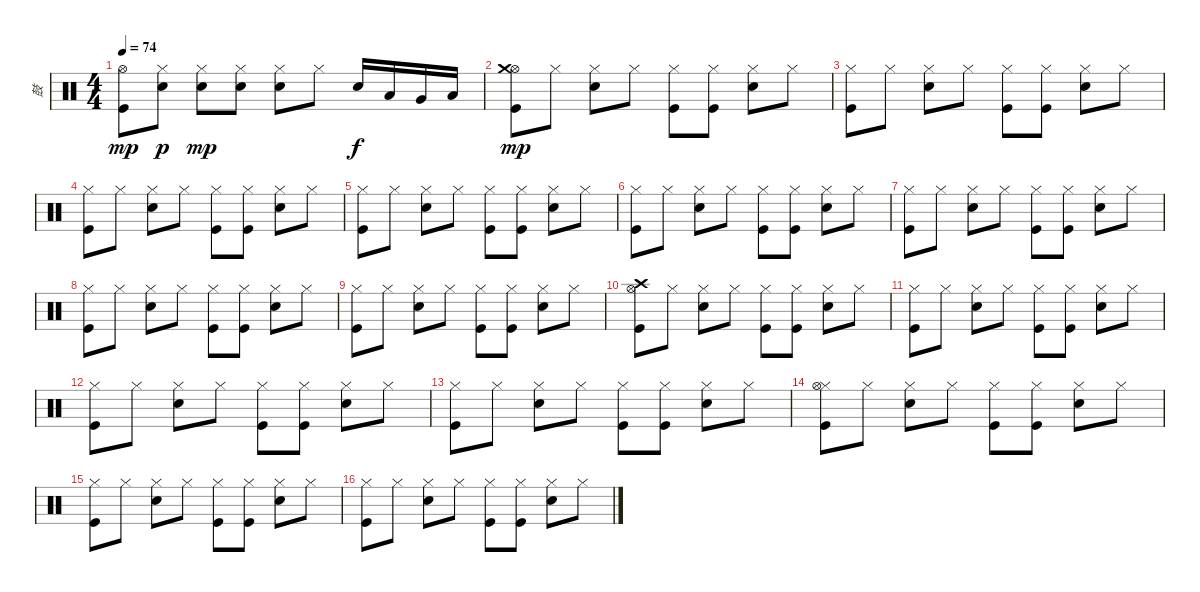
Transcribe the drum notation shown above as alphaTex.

\track ("鼓" "鼓") {instrument percussion}
\staff {score}
\articulation defaults
\ts (4 4)
\tempo 74
\clef neutral
\ks c
("Kick (hit)" "Hi-Hat (open)").8{dy mp} ("Electric Snare (hit)" "Hi-Hat (closed)").8{dy p} ("Electric Snare (hit)" "Hi-Hat (closed)").8{dy mp} ("Electric Snare (hit)" "Hi-Hat (closed)").8 ("Electric Snare (hit)" "Hi-Hat (closed)").8 "Hi-Hat (closed)".8 "Electric Snare (hit)".16{dy f} "Low Tom (hit)".16 "Very Low Tom (hit)".16 "Low Floor Tom (hit)".16 |
("Kick (hit)" "Hi-Hat (open)" "Crash medium (hit)").8{dy mp} "Hi-Hat (closed)".8 ("Electric Snare (hit)" "Hi-Hat (closed)").8 "Hi-Hat (closed)".8 ("Kick (hit)" "Hi-Hat (closed)").8 ("Kick (hit)" "Hi-Hat (closed)").8 ("Electric Snare (hit)" "Hi-Hat (closed)").8 "Hi-Hat (closed)".8 |
("Kick (hit)" "Hi-Hat (closed)").8 "Hi-Hat (closed)".8 ("Electric Snare (hit)" "Hi-Hat (closed)").8 "Hi-Hat (closed)".8 ("Kick (hit)" "Hi-Hat (closed)").8 ("Kick (hit)" "Hi-Hat (closed)").8 ("Electric Snare (hit)" "Hi-Hat (closed)").8 "Hi-Hat (closed)".8 |
("Kick (hit)" "Hi-Hat (closed)").8 "Hi-Hat (closed)".8 ("Electric Snare (hit)" "Hi-Hat (closed)").8 "Hi-Hat (closed)".8 ("Kick (hit)" "Hi-Hat (closed)").8 ("Kick (hit)" "Hi-Hat (closed)").8 ("Electric Snare (hit)" "Hi-Hat (closed)").8 "Hi-Hat (closed)".8 |
("Kick (hit)" "Hi-Hat (closed)").8 "Hi-Hat (closed)".8 ("Electric Snare (hit)" "Hi-Hat (closed)").8 "Hi-Hat (closed)".8 ("Kick (hit)" "Hi-Hat (closed)").8 ("Kick (hit)" "Hi-Hat (closed)").8 ("Electric Snare (hit)" "Hi-Hat (closed)").8 "Hi-Hat (closed)".8 |
("Kick (hit)" "Hi-Hat (closed)").8 "Hi-Hat (closed)".8 ("Electric Snare (hit)" "Hi-Hat (closed)").8 "Hi-Hat (closed)".8 ("Kick (hit)" "Hi-Hat (closed)").8 ("Kick (hit)" "Hi-Hat (closed)").8 ("Electric Snare (hit)" "Hi-Hat (closed)").8 "Hi-Hat (closed)".8 |
("Kick (hit)" "Hi-Hat (closed)").8 "Hi-Hat (closed)".8 ("Electric Snare (hit)" "Hi-Hat (closed)").8 "Hi-Hat (closed)".8 ("Kick (hit)" "Hi-Hat (closed)").8 ("Kick (hit)" "Hi-Hat (closed)").8 ("Electric Snare (hit)" "Hi-Hat (closed)").8 "Hi-Hat (closed)".8 |
("Kick (hit)" "Hi-Hat (closed)").8 "Hi-Hat (closed)".8 ("Electric Snare (hit)" "Hi-Hat (closed)").8 "Hi-Hat (closed)".8 ("Kick (hit)" "Hi-Hat (closed)").8 ("Kick (hit)" "Hi-Hat (closed)").8 ("Electric Snare (hit)" "Hi-Hat (closed)").8 "Hi-Hat (closed)".8 |
("Kick (hit)" "Hi-Hat (closed)").8 "Hi-Hat (closed)".8 ("Electric Snare (hit)" "Hi-Hat (closed)").8 "Hi-Hat (closed)".8 ("Kick (hit)" "Hi-Hat (closed)").8 ("Kick (hit)" "Hi-Hat (closed)").8 ("Electric Snare (hit)" "Hi-Hat (closed)").8 "Hi-Hat (closed)".8 |
("Kick (hit)" "Hi-Hat (open)" "Crash high (hit)").8 "Hi-Hat (closed)".8 ("Electric Snare (hit)" "Hi-Hat (closed)").8 "Hi-Hat (closed)".8 ("Kick (hit)" "Hi-Hat (closed)").8 ("Kick (hit)" "Hi-Hat (closed)").8 ("Electric Snare (hit)" "Hi-Hat (closed)").8 "Hi-Hat (closed)".8 |
("Kick (hit)" "Hi-Hat (closed)").8 "Hi-Hat (closed)".8 ("Electric Snare (hit)" "Hi-Hat (closed)").8 "Hi-Hat (closed)".8 ("Kick (hit)" "Hi-Hat (closed)").8 ("Kick (hit)" "Hi-Hat (closed)").8 ("Electric Snare (hit)" "Hi-Hat (closed)").8 "Hi-Hat (closed)".8 |
("Kick (hit)" "Hi-Hat (closed)").8 "Hi-Hat (closed)".8 ("Electric Snare (hit)" "Hi-Hat (closed)").8 "Hi-Hat (closed)".8 ("Kick (hit)" "Hi-Hat (closed)").8 ("Kick (hit)" "Hi-Hat (closed)").8 ("Electric Snare (hit)" "Hi-Hat (closed)").8 "Hi-Hat (closed)".8 |
("Kick (hit)" "Hi-Hat (closed)").8 "Hi-Hat (closed)".8 ("Electric Snare (hit)" "Hi-Hat (closed)").8 "Hi-Hat (closed)".8 ("Kick (hit)" "Hi-Hat (closed)").8 ("Kick (hit)" "Hi-Hat (closed)").8 ("Electric Snare (hit)" "Hi-Hat (closed)").8 "Hi-Hat (closed)".8 |
("Kick (hit)" "Hi-Hat (closed)" "Hi-Hat (open)").8 "Hi-Hat (closed)".8 ("Electric Snare (hit)" "Hi-Hat (closed)").8 "Hi-Hat (closed)".8 ("Kick (hit)" "Hi-Hat (closed)").8 ("Kick (hit)" "Hi-Hat (closed)").8 ("Electric Snare (hit)" "Hi-Hat (closed)").8 "Hi-Hat (closed)".8 |
("Kick (hit)" "Hi-Hat (closed)").8 "Hi-Hat (closed)".8 ("Electric Snare (hit)" "Hi-Hat (closed)").8 "Hi-Hat (closed)".8 ("Kick (hit)" "Hi-Hat (closed)").8 ("Kick (hit)" "Hi-Hat (closed)").8 ("Electric Snare (hit)" "Hi-Hat (closed)").8 "Hi-Hat (closed)".8 |
("Kick (hit)" "Hi-Hat (closed)").8 "Hi-Hat (closed)".8 ("Electric Snare (hit)" "Hi-Hat (closed)").8 "Hi-Hat (closed)".8 ("Kick (hit)" "Hi-Hat (closed)").8 ("Kick (hit)" "Hi-Hat (closed)").8 ("Electric Snare (hit)" "Hi-Hat (closed)").8 "Hi-Hat (closed)".8
